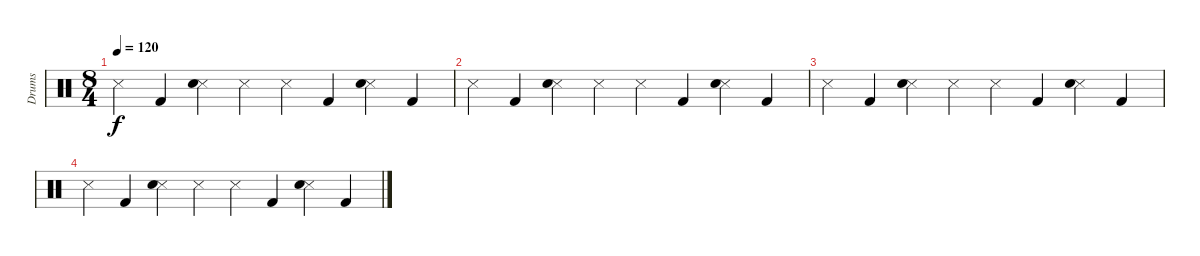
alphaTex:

\track ("Drums" "Drums") {instrument percussion}
\staff {score}
\articulation defaults
\ts (8 4)
\tempo 120
\clef neutral
\ks c "Metronome (hit)".4{dy f} "Kick (hit) 2".4
("Metronome (hit)" "Snare (hit) 2").4 "Metronome (hit)".4 "Metronome (hit)".4 "Kick (hit) 2".4 ("Metronome (hit)" "Snare (hit) 2").4 "Kick (hit) 2".4 |
"Metronome (hit)".4 "Kick (hit) 2".4 ("Metronome (hit)" "Snare (hit) 2").4 "Metronome (hit)".4 "Metronome (hit)".4 "Kick (hit) 2".4 ("Metronome (hit)" "Snare (hit) 2").4 "Kick (hit) 2".4 |
"Metronome (hit)".4 "Kick (hit) 2".4 ("Metronome (hit)" "Snare (hit) 2").4 "Metronome (hit)".4 "Metronome (hit)".4 "Kick (hit) 2".4 ("Metronome (hit)" "Snare (hit) 2").4 "Kick (hit) 2".4 |
"Metronome (hit)".4 "Kick (hit) 2".4 ("Metronome (hit)" "Snare (hit) 2").4 "Metronome (hit)".4 "Metronome (hit)".4 "Kick (hit) 2".4 ("Metronome (hit)" "Snare (hit) 2").4 "Kick (hit) 2".4
